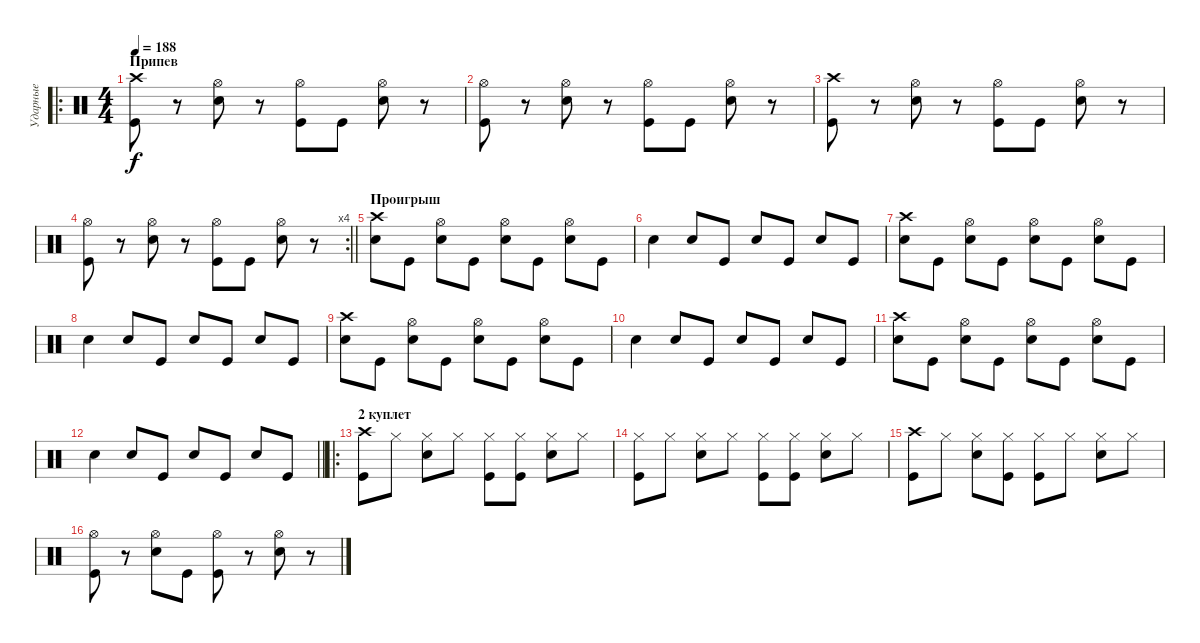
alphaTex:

\track ("Ударные" "Ударные") {instrument percussion}
\staff {score}
\articulation defaults
\ro
\ts (4 4)
\section ("" "Припев")
\tempo 188
\clef neutral
\ks c
("Kick (hit)" "Crash high (hit)").8{dy f} r.8 ("Electric Snare (hit)" "Hi-Hat (open)").8 r.8 ("Kick (hit)" "Hi-Hat (open)").8 "Kick (hit)".8 ("Electric Snare (hit)" "Hi-Hat (open)").8 r.8 |
("Kick (hit)" "Hi-Hat (open)").8 r.8 ("Electric Snare (hit)" "Hi-Hat (open)").8 r.8 ("Kick (hit)" "Hi-Hat (open)").8 "Kick (hit)".8 ("Electric Snare (hit)" "Hi-Hat (open)").8 r.8 |
("Kick (hit)" "Crash high (hit)").8 r.8 ("Electric Snare (hit)" "Hi-Hat (open)").8 r.8 ("Kick (hit)" "Hi-Hat (open)").8 "Kick (hit)".8 ("Electric Snare (hit)" "Hi-Hat (open)").8 r.8 |
\rc 4
\barLineRight lightlight
("Kick (hit)" "Hi-Hat (open)").8 r.8 ("Electric Snare (hit)" "Hi-Hat (open)").8 r.8 ("Kick (hit)" "Hi-Hat (open)").8 "Kick (hit)".8 ("Electric Snare (hit)" "Hi-Hat (open)").8 r.8 |
\section ("" "Проигрыш")
("Electric Snare (hit)" "Crash high (hit)").8 "Kick (hit)".8 ("Electric Snare (hit)" "Hi-Hat (open)").8 "Kick (hit)".8 ("Electric Snare (hit)" "Hi-Hat (open)").8 "Kick (hit)".8 ("Electric Snare (hit)" "Hi-Hat (open)").8 "Kick (hit)".8 |
"Electric Snare (hit)".4 "Electric Snare (hit)".8 "Kick (hit)".8 "Electric Snare (hit)".8 "Kick (hit)".8 "Electric Snare (hit)".8 "Kick (hit)".8 |
("Electric Snare (hit)" "Crash high (hit)").8 "Kick (hit)".8 ("Electric Snare (hit)" "Hi-Hat (open)").8 "Kick (hit)".8 ("Electric Snare (hit)" "Hi-Hat (open)").8 "Kick (hit)".8 ("Electric Snare (hit)" "Hi-Hat (open)").8 "Kick (hit)".8 |
"Electric Snare (hit)".4 "Electric Snare (hit)".8 "Kick (hit)".8 "Electric Snare (hit)".8 "Kick (hit)".8 "Electric Snare (hit)".8 "Kick (hit)".8 |
("Electric Snare (hit)" "Crash high (hit)").8 "Kick (hit)".8 ("Electric Snare (hit)" "Hi-Hat (open)").8 "Kick (hit)".8 ("Electric Snare (hit)" "Hi-Hat (open)").8 "Kick (hit)".8 ("Electric Snare (hit)" "Hi-Hat (open)").8 "Kick (hit)".8 |
"Electric Snare (hit)".4 "Electric Snare (hit)".8 "Kick (hit)".8 "Electric Snare (hit)".8 "Kick (hit)".8 "Electric Snare (hit)".8 "Kick (hit)".8 |
("Electric Snare (hit)" "Crash high (hit)").8 "Kick (hit)".8 ("Electric Snare (hit)" "Hi-Hat (open)").8 "Kick (hit)".8 ("Electric Snare (hit)" "Hi-Hat (open)").8 "Kick (hit)".8 ("Electric Snare (hit)" "Hi-Hat (open)").8 "Kick (hit)".8 |
\barLineRight lightlight "Electric Snare (hit)".4 "Electric Snare (hit)".8 "Kick (hit)".8 "Electric Snare (hit)".8 "Kick (hit)".8 "Electric Snare (hit)".8 "Kick (hit)".8
|
\ro
\section ("" "2 куплет")
("Kick (hit)" "Crash high (hit)").8 "Hi-Hat (closed)".8 ("Electric Snare (hit)" "Hi-Hat (closed)").8 "Hi-Hat (closed)".8 ("Kick (hit)" "Hi-Hat (closed)").8 ("Kick (hit)" "Hi-Hat (closed)").8 ("Electric Snare (hit)" "Hi-Hat (closed)").8 "Hi-Hat (closed)".8 |
("Kick (hit)" "Hi-Hat (closed)").8 "Hi-Hat (closed)".8 ("Electric Snare (hit)" "Hi-Hat (closed)").8 "Hi-Hat (closed)".8 ("Kick (hit)" "Hi-Hat (closed)").8 ("Kick (hit)" "Hi-Hat (closed)").8 ("Electric Snare (hit)" "Hi-Hat (closed)").8 "Hi-Hat (closed)".8 |
("Kick (hit)" "Crash high (hit)").8 "Hi-Hat (closed)".8 ("Electric Snare (hit)" "Hi-Hat (closed)").8 ("Kick (hit)" "Hi-Hat (closed)").8 ("Kick (hit)" "Hi-Hat (closed)").8 "Hi-Hat (closed)".8 ("Electric Snare (hit)" "Hi-Hat (closed)").8 "Hi-Hat (closed)".8 |
("Kick (hit)" "Hi-Hat (open)").8 r.8 ("Electric Snare (hit)" "Hi-Hat (open)").8 "Kick (hit)".8 ("Kick (hit)" "Hi-Hat (open)").8 r.8 ("Electric Snare (hit)" "Hi-Hat (open)").8 r.8
